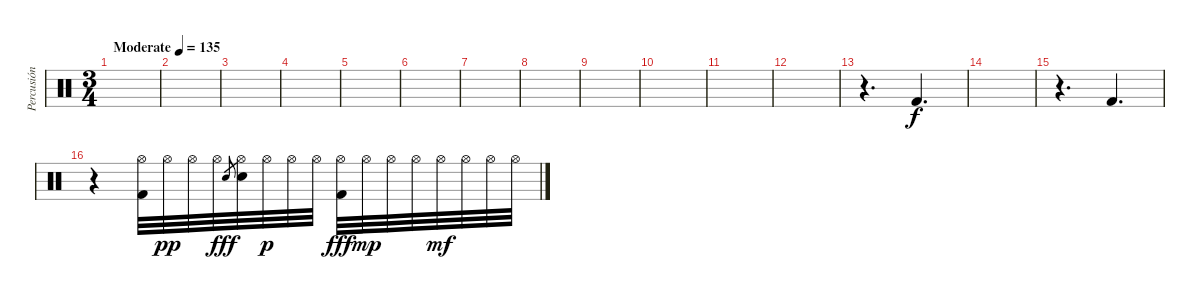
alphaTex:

\track ("Percusión" "Percusión") {instrument percussion}
\staff {score}
\articulation defaults
\ts (3 4)
\tempo (135 "Moderate")
\clef neutral
\ks c
|
|
|
|
|
|
|
|
|
|
|
|
r.4{d} "Kick (hit) 2".4{d} |
|
r.4{d} "Kick (hit) 2".4{d} |
r.4 ("Hi-Hat (open)" "Kick (hit) 2").32 "Hi-Hat (open)".32{dy pp} "Hi-Hat (open)".32 "Hi-Hat (open)".32 "Electric Snare (hit)".8{gr dy fff} ("Hi-Hat (open)" "Electric Snare (hit)").32 "Hi-Hat (open)".32{dy p} "Hi-Hat (open)".32 "Hi-Hat (open)".32 ("Hi-Hat (open)" "Kick (hit) 2").32{dy fff} "Hi-Hat (open)".32{dy mp} "Hi-Hat (open)".32 "Hi-Hat (open)".32 "Hi-Hat (open)".32{dy mf} "Hi-Hat (open)".32 "Hi-Hat (open)".32 "Hi-Hat (open)".32
